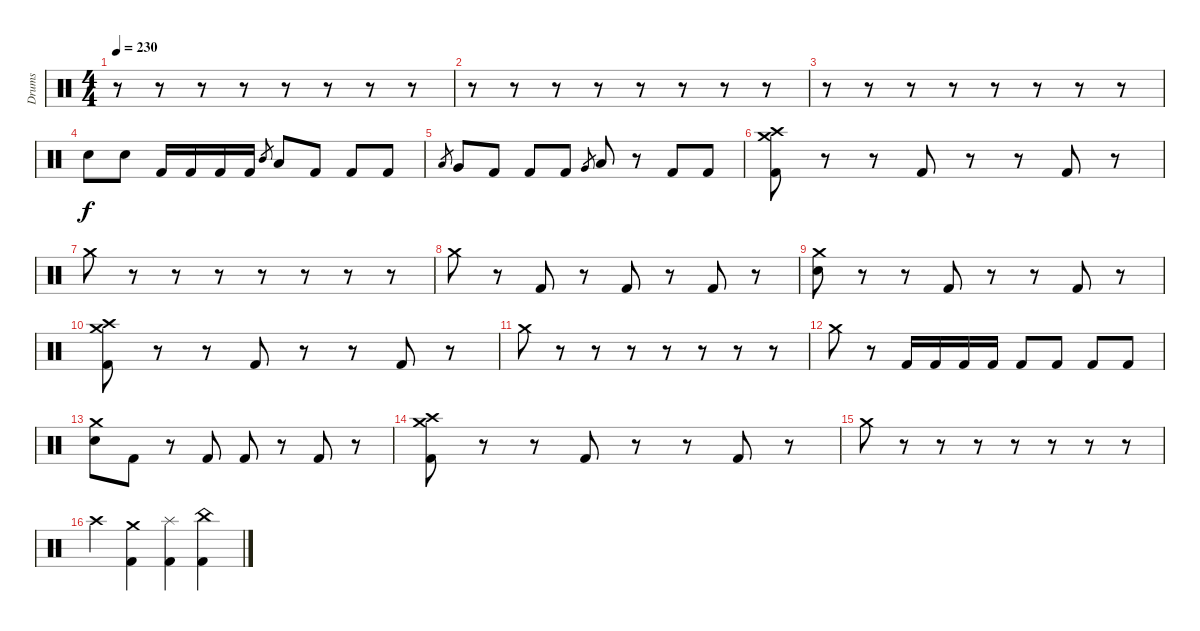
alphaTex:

\track ("Drums" "Drums") {instrument percussion}
\staff
\articulation defaults
\ts (4 4)
\tempo 230
\clef neutral
\ks c
r.8{dy f} r.8 r.8 r.8 r.8 r.8 r.8 r.8 |
r.8 r.8 r.8 r.8 r.8 r.8 r.8 r.8 |
r.8 r.8 r.8 r.8 r.8 r.8 r.8 r.8 |
"Electric Snare (hit)".8 "Electric Snare (hit)".8 "Kick (hit) 2".16 "Kick (hit) 2".16 "Kick (hit) 2".16 "Kick (hit) 2".16 "Mid Tom (hit)".8{gr} "Low Tom (hit)".8 "Kick (hit) 2".8 "Kick (hit) 2".8 "Kick (hit) 2".8 |
"Low Tom (hit)".8{gr} "Very Low Tom (hit)".8 "Kick (hit) 2".8 "Kick (hit) 2".8 "Kick (hit) 2".8 "Very Low Tom (hit)".8{gr} "Low Floor Tom (hit)".8 r.8 "Kick (hit) 2".8 "Kick (hit) 2".8 |
("Crash medium (hit)" "Crash high (hit)" "Kick (hit) 2").8 r.8 r.8 "Kick (hit) 2".8 r.8 r.8 "Kick (hit) 2".8 r.8 |
"Crash medium (hit)".8 r.8 r.8 r.8 r.8 r.8 r.8 r.8 |
"Crash medium (hit)".8 r.8 "Kick (hit) 2".8 r.8 "Kick (hit) 2".8 r.8 "Kick (hit) 2".8 r.8 |
("Crash medium (hit)" "Electric Snare (hit)").8 r.8 r.8 "Kick (hit) 2".8 r.8 r.8 "Kick (hit) 2".8 r.8 |
("Crash medium (hit)" "Crash high (hit)" "Kick (hit) 2").8 r.8 r.8 "Kick (hit) 2".8 r.8 r.8 "Kick (hit) 2".8 r.8 |
"Crash medium (hit)".8 r.8 r.8 r.8 r.8 r.8 r.8 r.8 |
"Crash medium (hit)".8 r.8 "Kick (hit) 2".16 "Kick (hit) 2".16 "Kick (hit) 2".16 "Kick (hit) 2".16 "Kick (hit) 2".8 "Kick (hit) 2".8 "Kick (hit) 2".8 "Kick (hit) 2".8 |
("Crash medium (hit)" "Electric Snare (hit)").8 "Kick (hit) 2".8 r.8 "Kick (hit) 2".8 "Kick (hit) 2".8 r.8 "Kick (hit) 2".8 r.8 |
("Crash medium (hit)" "Crash high (hit)" "Kick (hit) 2").8 r.8 r.8 "Kick (hit) 2".8 r.8 r.8 "Kick (hit) 2".8 r.8 |
"Crash medium (hit)".8 r.8 r.8 r.8 r.8 r.8 r.8 r.8 |
"Crash high (hit)".4 ("Crash medium (hit)" "Kick (hit) 2").4 ("Splash (hit)" "Kick (hit) 2").4 ("China (hit)" "Kick (hit) 2").4
